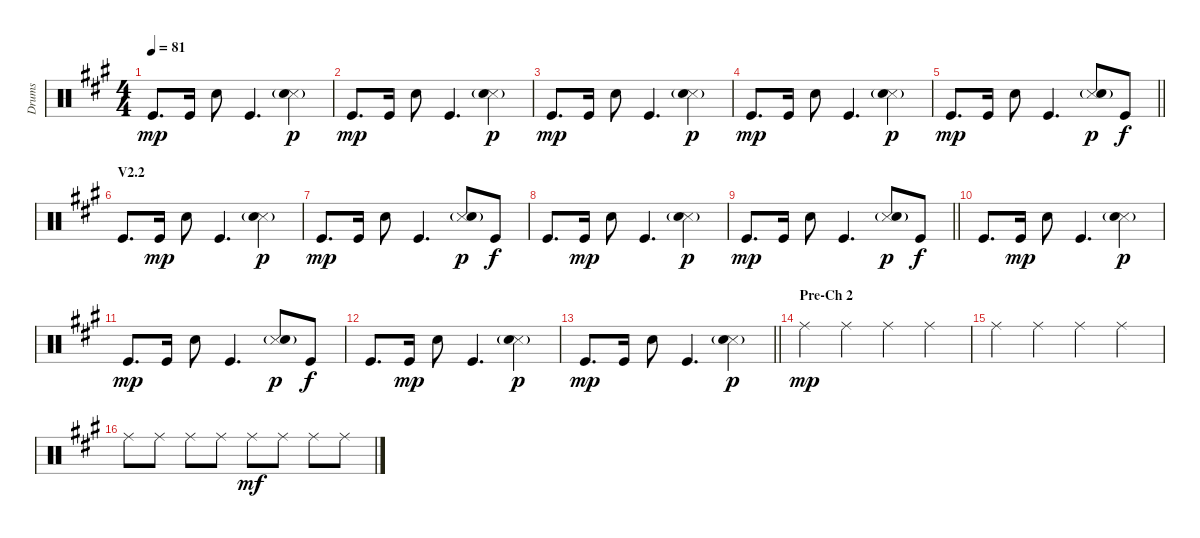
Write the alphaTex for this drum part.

\track ("Drums" "Drums") {instrument percussion}
\staff {score}
\articulation defaults
\ts (4 4)
\tempo 81
\clef neutral
\ks f#minor "Kick (hit)".8{d dy mp} "Kick (hit)".16 "Electric Snare (hit)".8 "Kick (hit)".4{d}
("Snare (side stick) 3" "Electric Snare (hit)"{g}).4{dy p} |
"Kick (hit)".8{d dy mp} "Kick (hit)".16 "Electric Snare (hit)".8 "Kick (hit)".4{d} ("Snare (side stick) 3" "Electric Snare (hit)"{g}).4{dy p} |
"Kick (hit)".8{d dy mp} "Kick (hit)".16 "Electric Snare (hit)".8 "Kick (hit)".4{d} ("Snare (side stick) 3" "Electric Snare (hit)"{g}).4{dy p} |
"Kick (hit)".8{d dy mp} "Kick (hit)".16 "Electric Snare (hit)".8 "Kick (hit)".4{d} ("Snare (side stick) 3" "Electric Snare (hit)"{g}).4{dy p} |
\barLineRight lightlight "Kick (hit)".8{d dy mp} "Kick (hit)".16 "Electric Snare (hit)".8 "Kick (hit)".4{d}
("Snare (side stick) 3" "Electric Snare (hit)"{g}).8{dy p} "Kick (hit)".8{dy f} |
\section ("" "V2.2")
"Kick (hit)".8{d} "Kick (hit)".16{dy mp} "Electric Snare (hit)".8 "Kick (hit)".4{d} ("Snare (side stick) 3" "Electric Snare (hit)"{g}).4{dy p} |
"Kick (hit)".8{d dy mp} "Kick (hit)".16 "Electric Snare (hit)".8 "Kick (hit)".4{d} ("Snare (side stick) 3" "Electric Snare (hit)"{g}).8{dy p} "Kick (hit)".8{dy f} |
"Kick (hit)".8{d} "Kick (hit)".16{dy mp} "Electric Snare (hit)".8 "Kick (hit)".4{d} ("Snare (side stick) 3" "Electric Snare (hit)"{g}).4{dy p} |
\barLineRight lightlight "Kick (hit)".8{d dy mp} "Kick (hit)".16 "Electric Snare (hit)".8 "Kick (hit)".4{d}
("Snare (side stick) 3" "Electric Snare (hit)"{g}).8{dy p} "Kick (hit)".8{dy f} |
"Kick (hit)".8{d} "Kick (hit)".16{dy mp} "Electric Snare (hit)".8 "Kick (hit)".4{d} ("Snare (side stick) 3" "Electric Snare (hit)"{g}).4{dy p} |
"Kick (hit)".8{d dy mp} "Kick (hit)".16 "Electric Snare (hit)".8 "Kick (hit)".4{d} ("Snare (side stick) 3" "Electric Snare (hit)"{g}).8{dy p} "Kick (hit)".8{dy f} |
"Kick (hit)".8{d} "Kick (hit)".16{dy mp} "Electric Snare (hit)".8 "Kick (hit)".4{d} ("Snare (side stick) 3" "Electric Snare (hit)"{g}).4{dy p} |
\barLineRight lightlight "Kick (hit)".8{d dy mp} "Kick (hit)".16 "Electric Snare (hit)".8 "Kick (hit)".4{d}
("Snare (side stick) 3" "Electric Snare (hit)"{g}).4{dy p} |
\section ("" "Pre-Ch 2")
"Ride (middle)".4{dy mp} "Ride (middle)".4 "Ride (middle)".4 "Ride (middle)".4 |
"Ride (middle)".4 "Ride (middle)".4 "Ride (middle)".4 "Ride (middle)".4 |
"Ride (middle)".8 "Ride (middle)".8 "Ride (middle)".8 "Ride (middle)".8 "Ride (middle)".8{dy mf} "Ride (middle)".8 "Ride (middle)".8 "Ride (middle)".8
